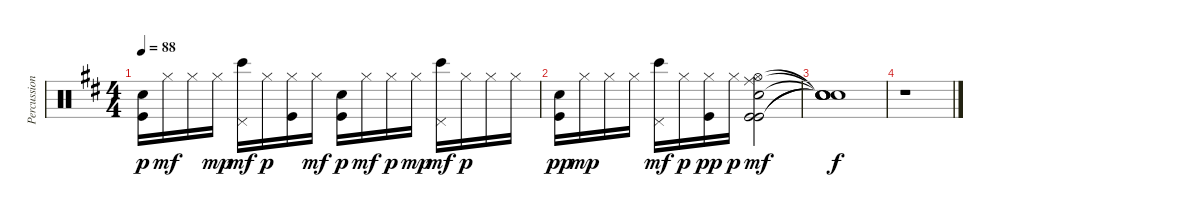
\track ("Percussion" "Percussion") {instrument percussion}
\staff {score}
\articulation defaults
\ts (4 4)
\tempo 88
\clef neutral
\ks d
("Snare (hit)" "Kick (hit)").16{dy p} "Hi-Hat (closed)".16{dy mf} "Hi-Hat (closed)".16 "Hi-Hat (closed)".16{dy mp} ("Bongo High (hit)" "Pedal Hi-Hat (hit)").16{dy mf} "Hi-Hat (closed)".16{dy p} ("Hi-Hat (closed)" "Kick (hit)").16 "Hi-Hat (closed)".16{dy mf} ("Snare (hit)" "Kick (hit)").16{dy p} "Hi-Hat (closed)".16{dy mf} "Hi-Hat (closed)".16{dy p} "Hi-Hat (closed)".16{dy mp} ("Bongo High (hit)" "Pedal Hi-Hat (hit)").16{dy mf} "Hi-Hat (closed)".16{dy p} "Hi-Hat (closed)".16 "Hi-Hat (closed)".16 |
("Snare (hit)" "Kick (hit)").16{dy pp} "Hi-Hat (closed)".16{dy mp} "Hi-Hat (closed)".16 "Hi-Hat (closed)".16 ("Bongo High (hit)" "Pedal Hi-Hat (hit)").16{dy mf} "Hi-Hat (closed)".16{dy p} ("Hi-Hat (closed)" "Kick (hit)").16{dy pp} "Hi-Hat (closed)".16{dy p} ("Snare (hit)" "Kick (hit)" "Kick (hit)" "Hi-Hat (open)" "Ride (middle)").2{dy mf} |
("Snare (hit)"{t} "Snare (hit)"{t} "Snare (hit)"{t} "Snare (hit)"{t} "Snare (hit)"{t}).1{dy f} |
r.1
